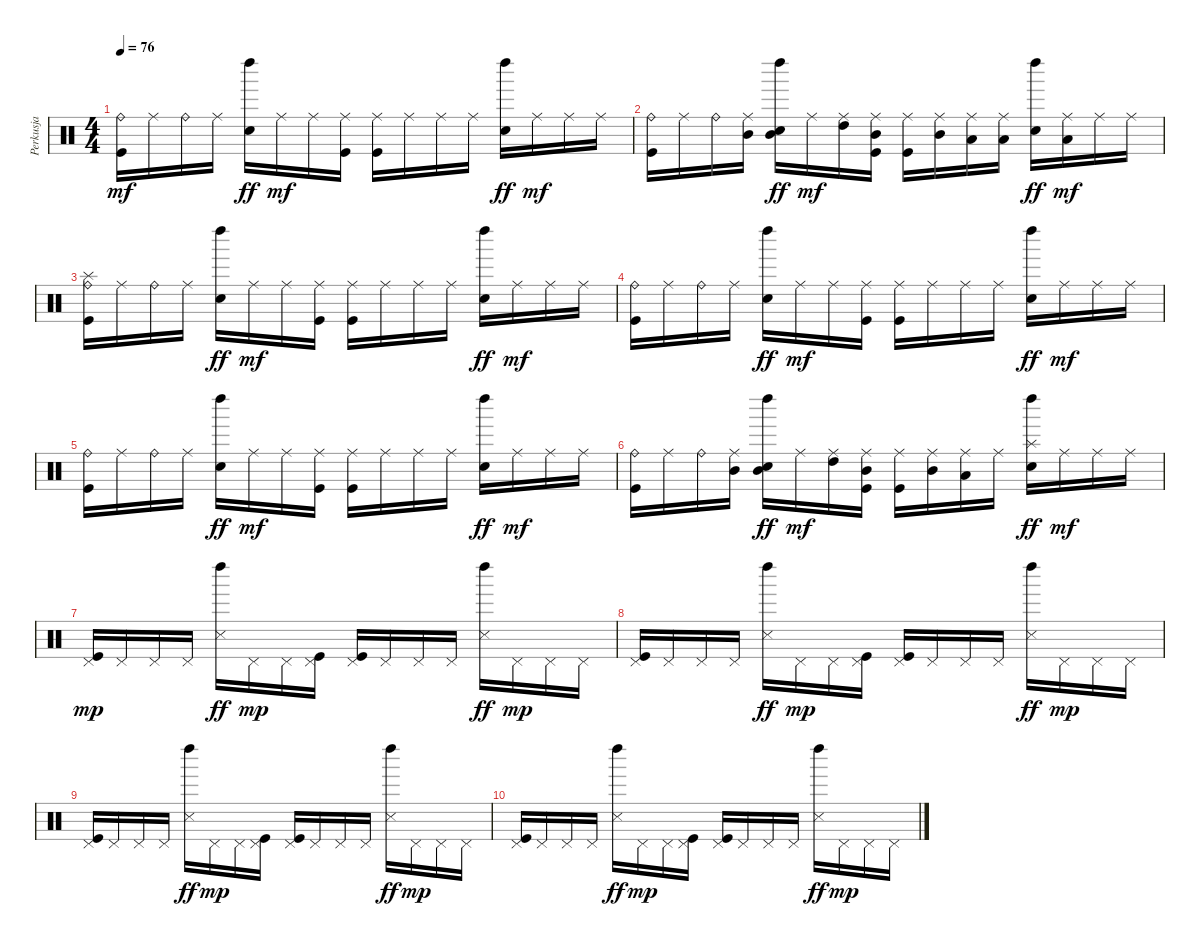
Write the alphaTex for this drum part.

\track ("Perkusja" "Perkusja") {instrument percussion}
\staff {score}
\articulation defaults
\ts (4 4)
\tempo 76
\clef neutral
\ks c
("Kick (hit)" "Ride (bell)").16{dy mf} "Ride (middle)".16 "Ride (bell)".16 "Ride (middle)".16 ("Electric Snare (hit)" "Left Maraca (hit)").16{dy ff} "Ride (middle)".16{dy mf} "Ride (middle)".16 ("Kick (hit)" "Ride (middle)").16 ("Kick (hit)" "Ride (middle)").16 "Ride (middle)".16 "Ride (middle)".16 "Ride (middle)".16 ("Electric Snare (hit)" "Left Maraca (hit)").16{dy ff} "Ride (middle)".16{dy mf} "Ride (middle)".16 "Ride (middle)".16 |
("Kick (hit)" "Ride (bell)").16 "Ride (middle)".16 "Ride (bell)".16 ("Mid Tom (hit)" "Ride (middle)").16 ("Electric Snare (hit)" "Mid Tom (hit)" "Left Maraca (hit)").16{dy ff} "Ride (middle)".16{dy mf} ("High Tom (hit)" "Ride (middle)").16 ("Kick (hit)" "Mid Tom (hit)" "Ride (middle)").16 ("Kick (hit)" "Ride (middle)").16 ("Mid Tom (hit)" "Ride (middle)").16 ("Low Tom (hit)" "Ride (middle)").16 ("Low Tom (hit)" "Ride (middle)").16 ("Electric Snare (hit)" "Left Maraca (hit)").16{dy ff} ("Low Tom (hit)" "Ride (middle)").16{dy mf} "Ride (middle)".16 "Ride (middle)".16 |
("Kick (hit)" "Splash (hit)" "Ride (bell)").16 "Ride (middle)".16 "Ride (bell)".16 "Ride (middle)".16 ("Electric Snare (hit)" "Left Maraca (hit)").16{dy ff} "Ride (middle)".16{dy mf} "Ride (middle)".16 ("Kick (hit)" "Ride (middle)").16 ("Kick (hit)" "Ride (middle)").16 "Ride (middle)".16 "Ride (middle)".16 "Ride (middle)".16 ("Electric Snare (hit)" "Left Maraca (hit)").16{dy ff} "Ride (middle)".16{dy mf} "Ride (middle)".16 "Ride (middle)".16 |
("Kick (hit)" "Ride (bell)").16 "Ride (middle)".16 "Ride (bell)".16 "Ride (middle)".16 ("Electric Snare (hit)" "Left Maraca (hit)").16{dy ff} "Ride (middle)".16{dy mf} "Ride (middle)".16 ("Kick (hit)" "Ride (middle)").16 ("Kick (hit)" "Ride (middle)").16 "Ride (middle)".16 "Ride (middle)".16 "Ride (middle)".16 ("Electric Snare (hit)" "Left Maraca (hit)").16{dy ff} "Ride (middle)".16{dy mf} "Ride (middle)".16 "Ride (middle)".16 |
("Kick (hit)" "Ride (bell)").16 "Ride (middle)".16 "Ride (bell)".16 "Ride (middle)".16 ("Electric Snare (hit)" "Left Maraca (hit)").16{dy ff} "Ride (middle)".16{dy mf} "Ride (middle)".16 ("Kick (hit)" "Ride (middle)").16 ("Kick (hit)" "Ride (middle)").16 "Ride (middle)".16 "Ride (middle)".16 "Ride (middle)".16 ("Electric Snare (hit)" "Left Maraca (hit)").16{dy ff} "Ride (middle)".16{dy mf} "Ride (middle)".16 "Ride (middle)".16 |
("Kick (hit)" "Ride (bell)").16 "Ride (middle)".16 "Ride (bell)".16 ("Mid Tom (hit)" "Ride (middle)").16 ("Electric Snare (hit)" "Mid Tom (hit)" "Left Maraca (hit)").16{dy ff} "Ride (middle)".16{dy mf} ("High Tom (hit)" "Ride (middle)").16 ("Kick (hit)" "Mid Tom (hit)" "Ride (middle)").16 ("Kick (hit)" "Ride (middle)").16 ("Mid Tom (hit)" "Ride (middle)").16 ("Low Tom (hit)" "Ride (middle)").16 "Ride (middle)".16 ("Electric Snare (hit)" "Splash (hit)" "Left Maraca (hit)").16{dy ff} "Ride (middle)".16{dy mf} "Ride (middle)".16 "Ride (middle)".16 |
("Kick (hit)" "Pedal Hi-Hat (hit)").16{dy mp volume 5} "Pedal Hi-Hat (hit)".16 "Pedal Hi-Hat (hit)".16 "Pedal Hi-Hat (hit)".16 ("Snare (side stick) 3" "Left Maraca (hit)").16{dy ff} "Pedal Hi-Hat (hit)".16{dy mp} "Pedal Hi-Hat (hit)".16 ("Kick (hit)" "Pedal Hi-Hat (hit)").16 ("Kick (hit)" "Pedal Hi-Hat (hit)").16 "Pedal Hi-Hat (hit)".16 "Pedal Hi-Hat (hit)".16 "Pedal Hi-Hat (hit)".16 ("Snare (side stick) 3" "Left Maraca (hit)").16{dy ff} "Pedal Hi-Hat (hit)".16{dy mp} "Pedal Hi-Hat (hit)".16 "Pedal Hi-Hat (hit)".16 |
("Kick (hit)" "Pedal Hi-Hat (hit)").16 "Pedal Hi-Hat (hit)".16 "Pedal Hi-Hat (hit)".16 "Pedal Hi-Hat (hit)".16 ("Snare (side stick) 3" "Left Maraca (hit)").16{dy ff} "Pedal Hi-Hat (hit)".16{dy mp} "Pedal Hi-Hat (hit)".16 ("Kick (hit)" "Pedal Hi-Hat (hit)").16 ("Kick (hit)" "Pedal Hi-Hat (hit)").16 "Pedal Hi-Hat (hit)".16 "Pedal Hi-Hat (hit)".16 "Pedal Hi-Hat (hit)".16 ("Snare (side stick) 3" "Left Maraca (hit)").16{dy ff} "Pedal Hi-Hat (hit)".16{dy mp} "Pedal Hi-Hat (hit)".16 "Pedal Hi-Hat (hit)".16 |
("Kick (hit)" "Pedal Hi-Hat (hit)").16{volume 0} "Pedal Hi-Hat (hit)".16 "Pedal Hi-Hat (hit)".16 "Pedal Hi-Hat (hit)".16 ("Snare (side stick) 3" "Left Maraca (hit)").16{dy ff} "Pedal Hi-Hat (hit)".16{dy mp} "Pedal Hi-Hat (hit)".16 ("Kick (hit)" "Pedal Hi-Hat (hit)").16 ("Kick (hit)" "Pedal Hi-Hat (hit)").16 "Pedal Hi-Hat (hit)".16 "Pedal Hi-Hat (hit)".16 "Pedal Hi-Hat (hit)".16 ("Snare (side stick) 3" "Left Maraca (hit)").16{dy ff} "Pedal Hi-Hat (hit)".16{dy mp} "Pedal Hi-Hat (hit)".16 "Pedal Hi-Hat (hit)".16 |
("Kick (hit)" "Pedal Hi-Hat (hit)").16 "Pedal Hi-Hat (hit)".16 "Pedal Hi-Hat (hit)".16 "Pedal Hi-Hat (hit)".16 ("Snare (side stick) 3" "Left Maraca (hit)").16{dy ff} "Pedal Hi-Hat (hit)".16{dy mp} "Pedal Hi-Hat (hit)".16 ("Kick (hit)" "Pedal Hi-Hat (hit)").16 ("Kick (hit)" "Pedal Hi-Hat (hit)").16 "Pedal Hi-Hat (hit)".16 "Pedal Hi-Hat (hit)".16 "Pedal Hi-Hat (hit)".16 ("Snare (side stick) 3" "Left Maraca (hit)").16{dy ff} "Pedal Hi-Hat (hit)".16{dy mp} "Pedal Hi-Hat (hit)".16 "Pedal Hi-Hat (hit)".16
